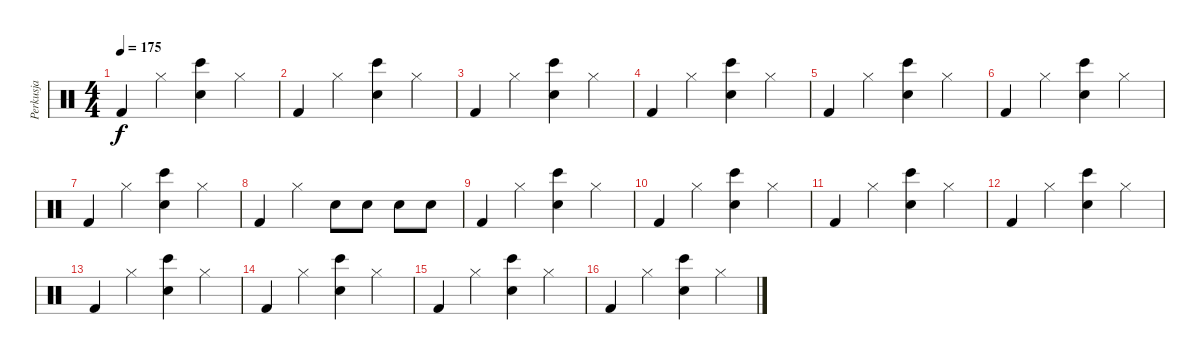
\track ("Perkusja" "Perkusja") {instrument percussion}
\staff {score}
\articulation defaults
\ts (4 4)
\tempo 175
\clef neutral
\ks c "Kick (hit) 2".4{dy f} "Hi-Hat (closed)".4
("Snare (hit) 2" "Bongo High (hit)").4 "Hi-Hat (closed)".4 |
"Kick (hit) 2".4 "Hi-Hat (closed)".4 ("Snare (hit) 2" "Bongo High (hit)").4 "Hi-Hat (closed)".4 |
"Kick (hit) 2".4 "Hi-Hat (closed)".4 ("Snare (hit) 2" "Bongo High (hit)").4 "Hi-Hat (closed)".4 |
"Kick (hit) 2".4 "Hi-Hat (closed)".4 ("Snare (hit) 2" "Bongo High (hit)").4 "Hi-Hat (closed)".4 |
"Kick (hit) 2".4 "Hi-Hat (closed)".4 ("Snare (hit) 2" "Bongo High (hit)").4 "Hi-Hat (closed)".4 |
"Kick (hit) 2".4 "Hi-Hat (closed)".4 ("Snare (hit) 2" "Bongo High (hit)").4 "Hi-Hat (closed)".4 |
"Kick (hit) 2".4 "Hi-Hat (closed)".4 ("Snare (hit) 2" "Bongo High (hit)").4 "Hi-Hat (closed)".4 |
"Kick (hit) 2".4 "Hi-Hat (closed)".4 "Snare (hit) 2".8 "Snare (hit) 2".8 "Snare (hit) 2".8 "Snare (hit) 2".8 |
"Kick (hit) 2".4 "Hi-Hat (closed)".4 ("Snare (hit) 2" "Bongo High (hit)").4 "Hi-Hat (closed)".4 |
"Kick (hit) 2".4 "Hi-Hat (closed)".4 ("Snare (hit) 2" "Bongo High (hit)").4 "Hi-Hat (closed)".4 |
"Kick (hit) 2".4 "Hi-Hat (closed)".4 ("Snare (hit) 2" "Bongo High (hit)").4 "Hi-Hat (closed)".4 |
"Kick (hit) 2".4 "Hi-Hat (closed)".4 ("Snare (hit) 2" "Bongo High (hit)").4 "Hi-Hat (closed)".4 |
"Kick (hit) 2".4 "Hi-Hat (closed)".4 ("Snare (hit) 2" "Bongo High (hit)").4 "Hi-Hat (closed)".4 |
"Kick (hit) 2".4 "Hi-Hat (closed)".4 ("Snare (hit) 2" "Bongo High (hit)").4 "Hi-Hat (closed)".4 |
"Kick (hit) 2".4 "Hi-Hat (closed)".4 ("Snare (hit) 2" "Bongo High (hit)").4 "Hi-Hat (closed)".4 |
"Kick (hit) 2".4 "Hi-Hat (closed)".4 ("Snare (hit) 2" "Bongo High (hit)").4 "Hi-Hat (closed)".4
